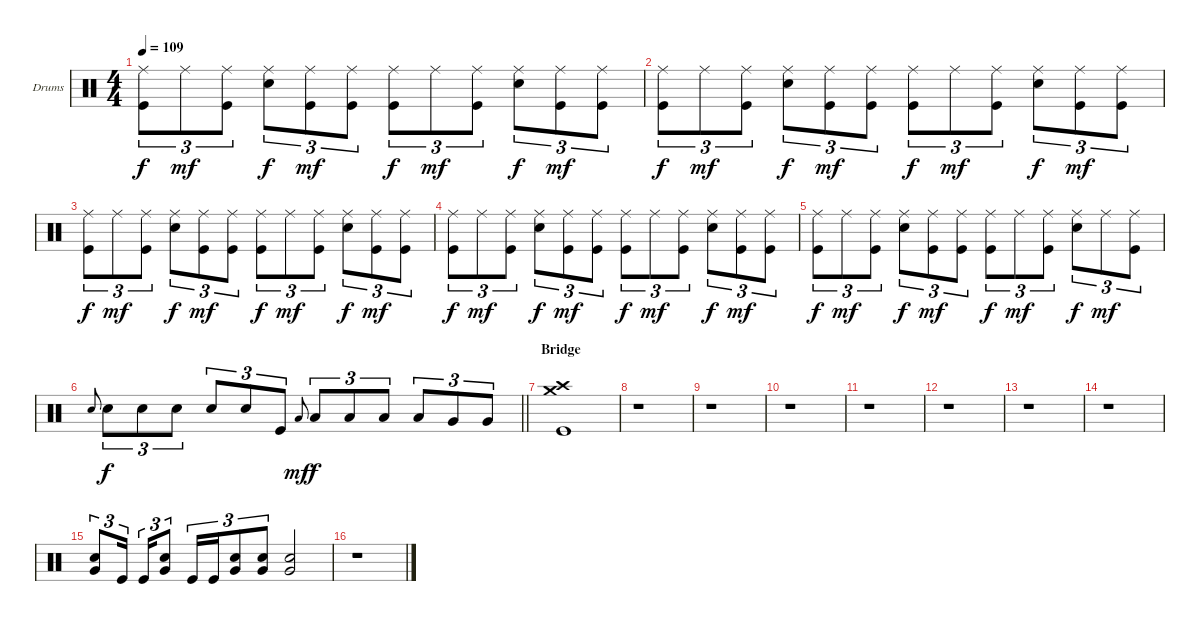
\bracketExtendMode groupsimilarinstruments
\firstSystemTrackNameOrientation horizontal
\otherSystemsTrackNameOrientation horizontal
\track ("Drumkit" "Drums") {instrument percussion}
\staff {score}
\articulation defaults
\ts (4 4)
\tempo 109
\clef neutral
\ks c
("Ride (middle)" "Kick (hit)").8{tu (3 2) dy f} "Ride (middle)".8{tu (3 2) dy mf} ("Ride (middle)" "Kick (hit)").8{tu (3 2)} ("Ride (middle)" "Snare (hit) 2").8{tu (3 2) dy f} ("Ride (middle)" "Kick (hit)").8{tu (3 2) dy mf} ("Ride (middle)" "Kick (hit)").8{tu (3 2)} ("Ride (middle)" "Kick (hit)").8{tu (3 2) dy f} "Ride (middle)".8{tu (3 2) dy mf} ("Ride (middle)" "Kick (hit)").8{tu (3 2)} ("Ride (middle)" "Snare (hit) 2").8{tu (3 2) dy f} ("Ride (middle)" "Kick (hit)").8{tu (3 2) dy mf} ("Ride (middle)" "Kick (hit)").8{tu (3 2)} |
("Ride (middle)" "Kick (hit)").8{tu (3 2) dy f} "Ride (middle)".8{tu (3 2) dy mf} ("Ride (middle)" "Kick (hit)").8{tu (3 2)} ("Ride (middle)" "Snare (hit) 2").8{tu (3 2) dy f} ("Ride (middle)" "Kick (hit)").8{tu (3 2) dy mf} ("Ride (middle)" "Kick (hit)").8{tu (3 2)} ("Ride (middle)" "Kick (hit)").8{tu (3 2) dy f} "Ride (middle)".8{tu (3 2) dy mf} ("Ride (middle)" "Kick (hit)").8{tu (3 2)} ("Ride (middle)" "Snare (hit) 2").8{tu (3 2) dy f} ("Ride (middle)" "Kick (hit)").8{tu (3 2) dy mf} ("Ride (middle)" "Kick (hit)").8{tu (3 2)} |
("Ride (middle)" "Kick (hit)").8{tu (3 2) dy f} "Ride (middle)".8{tu (3 2) dy mf} ("Ride (middle)" "Kick (hit)").8{tu (3 2)} ("Ride (middle)" "Snare (hit) 2").8{tu (3 2) dy f} ("Ride (middle)" "Kick (hit)").8{tu (3 2) dy mf} ("Ride (middle)" "Kick (hit)").8{tu (3 2)} ("Ride (middle)" "Kick (hit)").8{tu (3 2) dy f} "Ride (middle)".8{tu (3 2) dy mf} ("Ride (middle)" "Kick (hit)").8{tu (3 2)} ("Ride (middle)" "Snare (hit) 2").8{tu (3 2) dy f} ("Ride (middle)" "Kick (hit)").8{tu (3 2) dy mf} ("Ride (middle)" "Kick (hit)").8{tu (3 2)} |
("Ride (middle)" "Kick (hit)").8{tu (3 2) dy f} "Ride (middle)".8{tu (3 2) dy mf} ("Ride (middle)" "Kick (hit)").8{tu (3 2)} ("Ride (middle)" "Snare (hit) 2").8{tu (3 2) dy f} ("Ride (middle)" "Kick (hit)").8{tu (3 2) dy mf} ("Ride (middle)" "Kick (hit)").8{tu (3 2)} ("Ride (middle)" "Kick (hit)").8{tu (3 2) dy f} "Ride (middle)".8{tu (3 2) dy mf} ("Ride (middle)" "Kick (hit)").8{tu (3 2)} ("Ride (middle)" "Snare (hit) 2").8{tu (3 2) dy f} ("Ride (middle)" "Kick (hit)").8{tu (3 2) dy mf} ("Ride (middle)" "Kick (hit)").8{tu (3 2)} |
("Ride (middle)" "Kick (hit)").8{tu (3 2) dy f} "Ride (middle)".8{tu (3 2) dy mf} ("Ride (middle)" "Kick (hit)").8{tu (3 2)} ("Ride (middle)" "Snare (hit) 2").8{tu (3 2) dy f} ("Ride (middle)" "Kick (hit)").8{tu (3 2) dy mf} ("Ride (middle)" "Kick (hit)").8{tu (3 2)} ("Ride (middle)" "Kick (hit)").8{tu (3 2) dy f} "Ride (middle)".8{tu (3 2) dy mf} ("Ride (middle)" "Kick (hit)").8{tu (3 2)} ("Ride (middle)" "Snare (hit) 2").8{tu (3 2) dy f} "Ride (middle)".8{tu (3 2) dy mf} ("Ride (middle)" "Kick (hit)").8{tu (3 2)} |
\barLineRight lightlight "Snare (hit) 2".8{gr onbeat} "Snare (hit) 2".8{tu (3 2) dy f} "Snare (hit) 2".8{tu (3 2)} "Snare (hit) 2".8{tu (3 2)} "Snare (hit) 2".8{tu (3 2)} "Snare (hit) 2".8{tu (3 2)} "Kick (hit)".8{tu (3 2)} "Low Tom (hit)".8{gr onbeat dy mf} "Low Tom (hit)".8{tu (3 2) dy f} "Low Tom (hit)".8{tu (3 2)} "Low Tom (hit)".8{tu (3 2)} "Low Tom (hit)".8{tu (3 2)} "Very Low Tom (hit)".8{tu (3 2)} "Very Low Tom (hit)".8{tu (3 2)}
|
\section ("" "Bridge")
("Crash medium (hit)" "Crash high (hit)" "Kick (hit)").1 |
r.1 |
r.1 |
r.1 |
r.1 |
r.1 |
r.1 |
r.1 |
("Very Low Tom (hit)" "Snare (hit) 2").8{tu (3 2)} "Kick (hit)".16{tu (3 2)} "Kick (hit)".16{tu (3 2)} ("Very Low Tom (hit)" "Snare (hit) 2").8{tu (3 2)} "Kick (hit)".16{tu (3 2)} "Kick (hit)".16{tu (3 2)} ("Very Low Tom (hit)" "Snare (hit) 2").8{tu (3 2)} ("Very Low Tom (hit)" "Snare (hit) 2").8{tu (3 2)} ("Very Low Tom (hit)" "Snare (hit) 2").2 |
r.1
